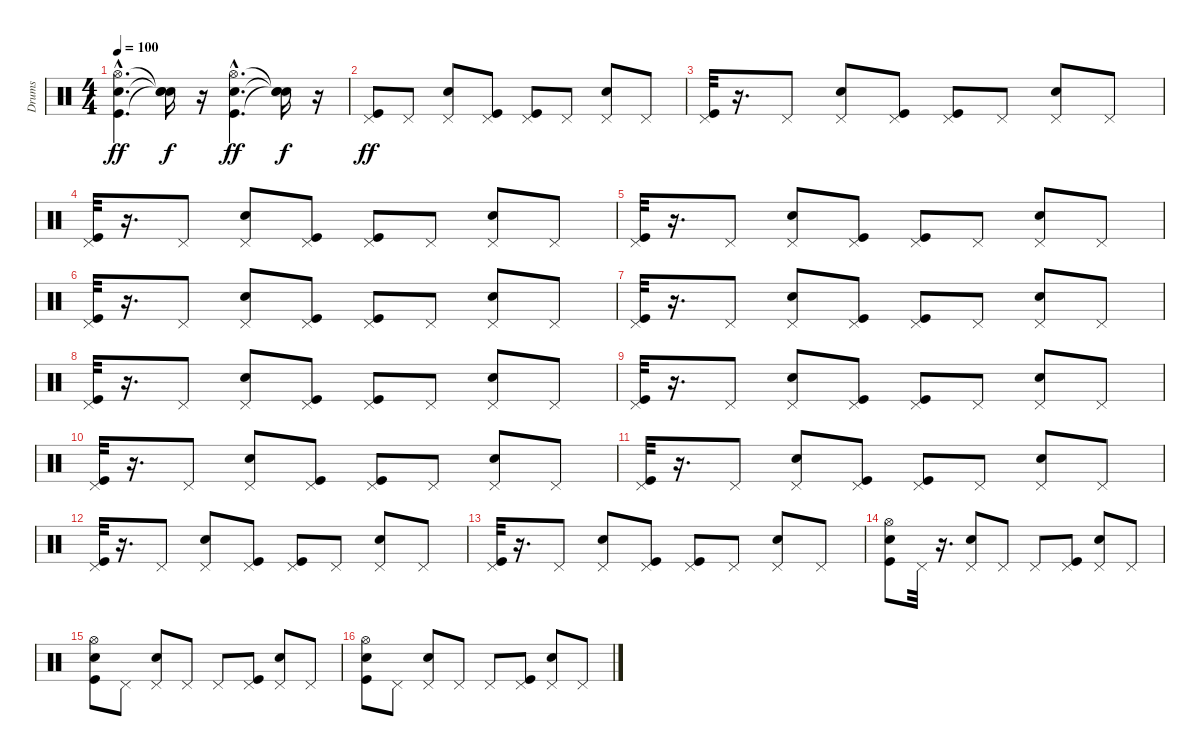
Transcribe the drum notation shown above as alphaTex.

\track ("Drums" "Drums") {instrument percussion}
\staff {score}
\articulation defaults
\ts (4 4)
\tempo 100
\clef neutral
\ks c
("Kick (hit)"{hac} "Electric Snare (hit)"{hac} "Hi-Hat (open)"{hac}).4{d dy ff} ("Snare (hit)"{t} "Snare (hit)"{t} "Snare (hit)"{t}).16{dy f} r.16 ("Kick (hit)"{hac} "Electric Snare (hit)"{hac} "Hi-Hat (open)"{hac}).4{d dy ff} ("Snare (hit)"{t} "Snare (hit)"{t} "Snare (hit)"{t}).16{dy f} r.16 |
("Kick (hit)" "Pedal Hi-Hat (hit)").8{dy ff} "Pedal Hi-Hat (hit)".8 ("Electric Snare (hit)" "Pedal Hi-Hat (hit)").8 ("Kick (hit)" "Pedal Hi-Hat (hit)").8 ("Kick (hit)" "Pedal Hi-Hat (hit)").8 "Pedal Hi-Hat (hit)".8 ("Electric Snare (hit)" "Pedal Hi-Hat (hit)").8 "Pedal Hi-Hat (hit)".8 |
("Kick (hit)" "Pedal Hi-Hat (hit)").32 r.16{d} "Pedal Hi-Hat (hit)".8 ("Electric Snare (hit)" "Pedal Hi-Hat (hit)").8 ("Kick (hit)" "Pedal Hi-Hat (hit)").8 ("Kick (hit)" "Pedal Hi-Hat (hit)").8 "Pedal Hi-Hat (hit)".8 ("Electric Snare (hit)" "Pedal Hi-Hat (hit)").8 "Pedal Hi-Hat (hit)".8 |
("Kick (hit)" "Pedal Hi-Hat (hit)").32 r.16{d} "Pedal Hi-Hat (hit)".8 ("Electric Snare (hit)" "Pedal Hi-Hat (hit)").8 ("Kick (hit)" "Pedal Hi-Hat (hit)").8 ("Kick (hit)" "Pedal Hi-Hat (hit)").8 "Pedal Hi-Hat (hit)".8 ("Electric Snare (hit)" "Pedal Hi-Hat (hit)").8 "Pedal Hi-Hat (hit)".8 |
("Kick (hit)" "Pedal Hi-Hat (hit)").32 r.16{d} "Pedal Hi-Hat (hit)".8 ("Electric Snare (hit)" "Pedal Hi-Hat (hit)").8 ("Kick (hit)" "Pedal Hi-Hat (hit)").8 ("Kick (hit)" "Pedal Hi-Hat (hit)").8 "Pedal Hi-Hat (hit)".8 ("Electric Snare (hit)" "Pedal Hi-Hat (hit)").8 "Pedal Hi-Hat (hit)".8 |
("Kick (hit)" "Pedal Hi-Hat (hit)").32 r.16{d} "Pedal Hi-Hat (hit)".8 ("Electric Snare (hit)" "Pedal Hi-Hat (hit)").8 ("Kick (hit)" "Pedal Hi-Hat (hit)").8 ("Kick (hit)" "Pedal Hi-Hat (hit)").8 "Pedal Hi-Hat (hit)".8 ("Electric Snare (hit)" "Pedal Hi-Hat (hit)").8 "Pedal Hi-Hat (hit)".8 |
("Kick (hit)" "Pedal Hi-Hat (hit)").32 r.16{d} "Pedal Hi-Hat (hit)".8 ("Electric Snare (hit)" "Pedal Hi-Hat (hit)").8 ("Kick (hit)" "Pedal Hi-Hat (hit)").8 ("Kick (hit)" "Pedal Hi-Hat (hit)").8 "Pedal Hi-Hat (hit)".8 ("Electric Snare (hit)" "Pedal Hi-Hat (hit)").8 "Pedal Hi-Hat (hit)".8 |
("Kick (hit)" "Pedal Hi-Hat (hit)").32 r.16{d} "Pedal Hi-Hat (hit)".8 ("Electric Snare (hit)" "Pedal Hi-Hat (hit)").8 ("Kick (hit)" "Pedal Hi-Hat (hit)").8 ("Kick (hit)" "Pedal Hi-Hat (hit)").8 "Pedal Hi-Hat (hit)".8 ("Electric Snare (hit)" "Pedal Hi-Hat (hit)").8 "Pedal Hi-Hat (hit)".8 |
("Kick (hit)" "Pedal Hi-Hat (hit)").32 r.16{d} "Pedal Hi-Hat (hit)".8 ("Electric Snare (hit)" "Pedal Hi-Hat (hit)").8 ("Kick (hit)" "Pedal Hi-Hat (hit)").8 ("Kick (hit)" "Pedal Hi-Hat (hit)").8 "Pedal Hi-Hat (hit)".8 ("Electric Snare (hit)" "Pedal Hi-Hat (hit)").8 "Pedal Hi-Hat (hit)".8 |
("Kick (hit)" "Pedal Hi-Hat (hit)").32 r.16{d} "Pedal Hi-Hat (hit)".8 ("Electric Snare (hit)" "Pedal Hi-Hat (hit)").8 ("Kick (hit)" "Pedal Hi-Hat (hit)").8 ("Kick (hit)" "Pedal Hi-Hat (hit)").8 "Pedal Hi-Hat (hit)".8 ("Electric Snare (hit)" "Pedal Hi-Hat (hit)").8 "Pedal Hi-Hat (hit)".8 |
("Kick (hit)" "Pedal Hi-Hat (hit)").32 r.16{d} "Pedal Hi-Hat (hit)".8 ("Electric Snare (hit)" "Pedal Hi-Hat (hit)").8 ("Kick (hit)" "Pedal Hi-Hat (hit)").8 ("Kick (hit)" "Pedal Hi-Hat (hit)").8 "Pedal Hi-Hat (hit)".8 ("Electric Snare (hit)" "Pedal Hi-Hat (hit)").8 "Pedal Hi-Hat (hit)".8 |
("Kick (hit)" "Pedal Hi-Hat (hit)").32 r.16{d} "Pedal Hi-Hat (hit)".8 ("Electric Snare (hit)" "Pedal Hi-Hat (hit)").8 ("Kick (hit)" "Pedal Hi-Hat (hit)").8 ("Kick (hit)" "Pedal Hi-Hat (hit)").8 "Pedal Hi-Hat (hit)".8 ("Electric Snare (hit)" "Pedal Hi-Hat (hit)").8 "Pedal Hi-Hat (hit)".8 |
("Kick (hit)" "Pedal Hi-Hat (hit)").32 r.16{d} "Pedal Hi-Hat (hit)".8 ("Electric Snare (hit)" "Pedal Hi-Hat (hit)").8 ("Kick (hit)" "Pedal Hi-Hat (hit)").8 ("Kick (hit)" "Pedal Hi-Hat (hit)").8 "Pedal Hi-Hat (hit)".8 ("Electric Snare (hit)" "Pedal Hi-Hat (hit)").8 "Pedal Hi-Hat (hit)".8 |
("Kick (hit)" "Electric Snare (hit)" "Hi-Hat (open)").8 "Pedal Hi-Hat (hit)".32 r.16{d} ("Electric Snare (hit)" "Pedal Hi-Hat (hit)").8 "Pedal Hi-Hat (hit)".8 "Pedal Hi-Hat (hit)".8 ("Kick (hit)" "Pedal Hi-Hat (hit)").8 ("Electric Snare (hit)" "Pedal Hi-Hat (hit)").8 "Pedal Hi-Hat (hit)".8 |
("Kick (hit)" "Electric Snare (hit)" "Hi-Hat (open)").8 "Pedal Hi-Hat (hit)".8 ("Electric Snare (hit)" "Pedal Hi-Hat (hit)").8 "Pedal Hi-Hat (hit)".8 "Pedal Hi-Hat (hit)".8 ("Kick (hit)" "Pedal Hi-Hat (hit)").8 ("Electric Snare (hit)" "Pedal Hi-Hat (hit)").8 "Pedal Hi-Hat (hit)".8 |
("Kick (hit)" "Electric Snare (hit)" "Hi-Hat (open)").8 "Pedal Hi-Hat (hit)".8 ("Electric Snare (hit)" "Pedal Hi-Hat (hit)").8 "Pedal Hi-Hat (hit)".8 "Pedal Hi-Hat (hit)".8 ("Kick (hit)" "Pedal Hi-Hat (hit)").8 ("Electric Snare (hit)" "Pedal Hi-Hat (hit)").8 "Pedal Hi-Hat (hit)".8
